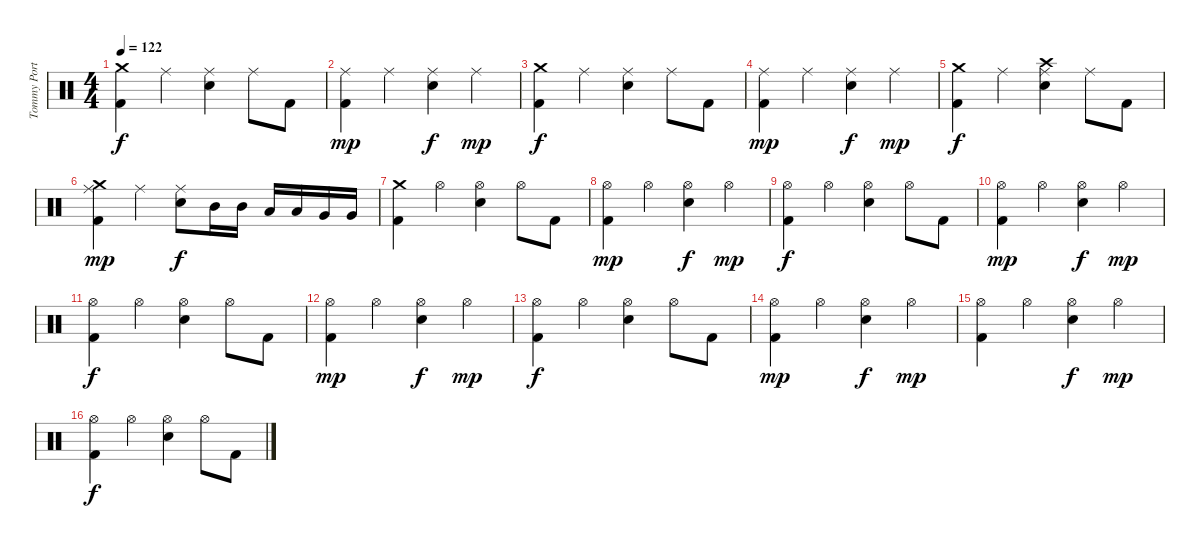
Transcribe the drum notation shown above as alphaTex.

\track ("Tommy Portino" "Tommy Port") {instrument percussion}
\staff {score}
\articulation defaults
\ts (4 4)
\tempo 122
\clef neutral
\ks c
("Crash medium (hit)" "Kick (hit) 2").4{dy f} "Ride (middle)".4 ("Ride (middle)" "Snare (hit) 2").4 "Ride (middle)".8 "Kick (hit) 2".8 |
("Ride (middle)" "Kick (hit) 2").4{dy mp} "Ride (middle)".4 ("Ride (middle)" "Snare (hit) 2").4{dy f} "Ride (middle)".4{dy mp} |
("Crash medium (hit)" "Kick (hit) 2").4{dy f} "Ride (middle)".4 ("Ride (middle)" "Snare (hit) 2").4 "Ride (middle)".8 "Kick (hit) 2".8 |
("Ride (middle)" "Kick (hit) 2").4{dy mp} "Ride (middle)".4 ("Ride (middle)" "Snare (hit) 2").4{dy f} "Ride (middle)".4{dy mp} |
("Crash medium (hit)" "Kick (hit) 2").4{dy f} "Ride (middle)".4 ("Crash high (hit)" "Ride (middle)" "Snare (hit) 2").4 "Ride (middle)".8 "Kick (hit) 2".8 |
("Crash medium (hit)" "Ride (middle)" "Kick (hit) 2").4{dy mp} "Ride (middle)".4 ("Ride (middle)" "Snare (hit) 2").8{dy f} "Mid Tom (hit)".16 "Mid Tom (hit)".16 "Low Tom (hit)".16 "Low Tom (hit)".16 "Very Low Tom (hit)".16 "Very Low Tom (hit)".16 |
("Crash medium (hit)" "Kick (hit) 2").4 "Hi-Hat (open)".4 ("Hi-Hat (open)" "Snare (hit) 2").4 "Hi-Hat (open)".8 "Kick (hit) 2".8 |
("Hi-Hat (open)" "Kick (hit) 2").4{dy mp} "Hi-Hat (open)".4 ("Hi-Hat (open)" "Snare (hit) 2").4{dy f} "Hi-Hat (open)".4{dy mp} |
("Hi-Hat (open)" "Kick (hit) 2").4{dy f} "Hi-Hat (open)".4 ("Hi-Hat (open)" "Snare (hit) 2").4 "Hi-Hat (open)".8 "Kick (hit) 2".8 |
("Hi-Hat (open)" "Kick (hit) 2").4{dy mp} "Hi-Hat (open)".4 ("Hi-Hat (open)" "Snare (hit) 2").4{dy f} "Hi-Hat (open)".4{dy mp} |
("Hi-Hat (open)" "Kick (hit) 2").4{dy f} "Hi-Hat (open)".4 ("Hi-Hat (open)" "Snare (hit) 2").4 "Hi-Hat (open)".8 "Kick (hit) 2".8 |
("Hi-Hat (open)" "Kick (hit) 2").4{dy mp} "Hi-Hat (open)".4 ("Hi-Hat (open)" "Snare (hit) 2").4{dy f} "Hi-Hat (open)".4{dy mp} |
("Hi-Hat (open)" "Kick (hit) 2").4{dy f} "Hi-Hat (open)".4 ("Hi-Hat (open)" "Snare (hit) 2").4 "Hi-Hat (open)".8 "Kick (hit) 2".8 |
("Hi-Hat (open)" "Kick (hit) 2").4{dy mp} "Hi-Hat (open)".4 ("Hi-Hat (open)" "Snare (hit) 2").4{dy f} "Hi-Hat (open)".4{dy mp} |
("Hi-Hat (open)" "Kick (hit) 2").4 "Hi-Hat (open)".4 ("Hi-Hat (open)" "Snare (hit) 2").4{dy f} "Hi-Hat (open)".4{dy mp} |
("Hi-Hat (open)" "Kick (hit) 2").4{dy f} "Hi-Hat (open)".4 ("Hi-Hat (open)" "Snare (hit) 2").4 "Hi-Hat (open)".8 "Kick (hit) 2".8
